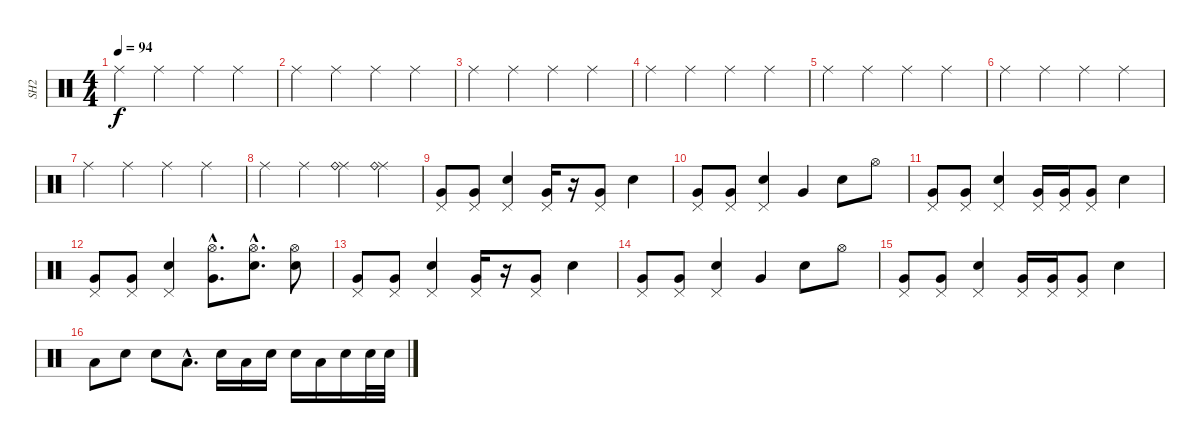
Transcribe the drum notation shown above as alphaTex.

\track ("SH2" "SH2") {instrument percussion}
\staff {score}
\articulation defaults
\ts (4 4)
\tempo 94
\clef neutral
\ks c "Ride (middle)".4{dy f} "Ride (middle)".4 "Ride (middle)".4 "Ride (middle)".4
|
"Ride (middle)".4 "Ride (middle)".4 "Ride (middle)".4 "Ride (middle)".4 |
"Ride (middle)".4 "Ride (middle)".4 "Ride (middle)".4 "Ride (middle)".4 |
"Ride (middle)".4 "Ride (middle)".4 "Ride (middle)".4 "Ride (middle)".4 |
"Ride (middle)".4 "Ride (middle)".4 "Ride (middle)".4 "Ride (middle)".4 |
"Ride (middle)".4 "Ride (middle)".4 "Ride (middle)".4 "Ride (middle)".4 |
"Ride (middle)".4 "Ride (middle)".4 "Ride (middle)".4 "Ride (middle)".4 |
"Ride (middle)".4 "Ride (middle)".4 ("Ride (middle)" "Ride (bell)").4 ("Ride (middle)" "Ride (bell)").4 |
("Very Low Tom (hit)" "Pedal Hi-Hat (hit)").8 ("Very Low Tom (hit)" "Pedal Hi-Hat (hit)").8 ("Snare (hit) 2" "Pedal Hi-Hat (hit)").4 ("Very Low Tom (hit)" "Pedal Hi-Hat (hit)").16 r.16 ("Very Low Tom (hit)" "Pedal Hi-Hat (hit)").8 "Snare (hit) 2".4 |
("Very Low Tom (hit)" "Pedal Hi-Hat (hit)").8 ("Very Low Tom (hit)" "Pedal Hi-Hat (hit)").8 ("Snare (hit) 2" "Pedal Hi-Hat (hit)").4 "Very Low Tom (hit)".4 "Snare (hit) 2".8 "Hi-Hat (open)".8 |
("Very Low Tom (hit)" "Pedal Hi-Hat (hit)").8 ("Very Low Tom (hit)" "Pedal Hi-Hat (hit)").8 ("Snare (hit) 2" "Pedal Hi-Hat (hit)").4 ("Very Low Tom (hit)" "Pedal Hi-Hat (hit)").16 ("Very Low Tom (hit)" "Pedal Hi-Hat (hit)").16 ("Very Low Tom (hit)" "Pedal Hi-Hat (hit)").8 "Snare (hit) 2".4 |
("Very Low Tom (hit)" "Pedal Hi-Hat (hit)").8 ("Very Low Tom (hit)" "Pedal Hi-Hat (hit)").8 ("Snare (hit) 2" "Pedal Hi-Hat (hit)").4 ("Very Low Tom (hit)"{hac} "Hi-Hat (open)"{hac}).8{d} ("Snare (hit) 2"{hac} "Hi-Hat (open)"{hac}).8{d} ("Snare (hit) 2" "Hi-Hat (open)").8 |
("Very Low Tom (hit)" "Pedal Hi-Hat (hit)").8 ("Very Low Tom (hit)" "Pedal Hi-Hat (hit)").8 ("Snare (hit) 2" "Pedal Hi-Hat (hit)").4 ("Very Low Tom (hit)" "Pedal Hi-Hat (hit)").16 r.16 ("Very Low Tom (hit)" "Pedal Hi-Hat (hit)").8 "Snare (hit) 2".4 |
("Very Low Tom (hit)" "Pedal Hi-Hat (hit)").8 ("Very Low Tom (hit)" "Pedal Hi-Hat (hit)").8 ("Snare (hit) 2" "Pedal Hi-Hat (hit)").4 "Very Low Tom (hit)".4 "Snare (hit) 2".8 "Hi-Hat (open)".8 |
("Very Low Tom (hit)" "Pedal Hi-Hat (hit)").8 ("Very Low Tom (hit)" "Pedal Hi-Hat (hit)").8 ("Snare (hit) 2" "Pedal Hi-Hat (hit)").4 ("Very Low Tom (hit)" "Pedal Hi-Hat (hit)").16 ("Very Low Tom (hit)" "Pedal Hi-Hat (hit)").16 ("Very Low Tom (hit)" "Pedal Hi-Hat (hit)").8 "Snare (hit) 2".4 |
"Low Floor Tom (hit)".8 "Snare (hit)"{x}.8 "Electric Snare (hit)".8 "Low Floor Tom (hit)"{hac}.8{d volume 16} "Electric Snare (hit)".16 "Low Floor Tom (hit)".16 "Electric Snare (hit)".16 "Electric Snare (hit)".16 "Low Floor Tom (hit)".16 "Electric Snare (hit)".16 "Electric Snare (hit)".32 "Electric Snare (hit)".32
